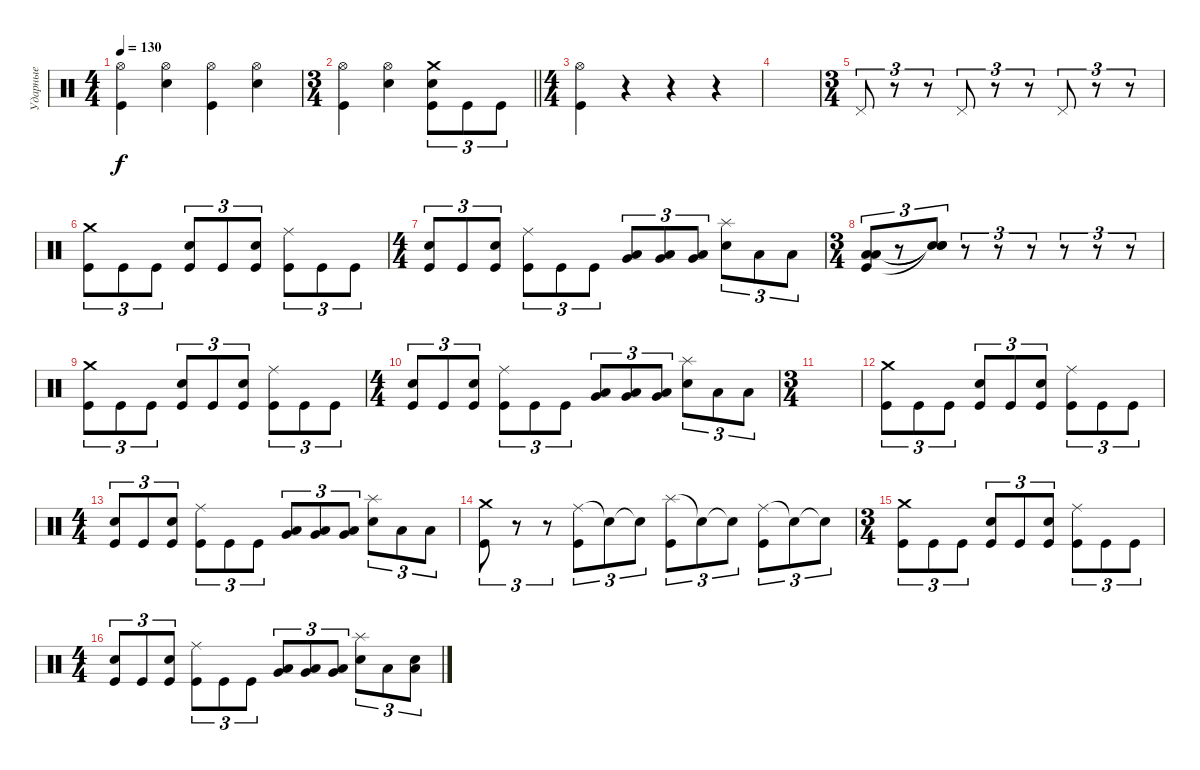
\track ("Ударные" "Ударные") {instrument percussion}
\staff {score}
\articulation defaults
\ts (4 4)
\tempo 130
\clef neutral
\ks c
("Hi-Hat (open)" "Kick (hit)").4{dy f} ("Hi-Hat (open)" "Electric Snare (hit)").4 ("Hi-Hat (open)" "Kick (hit)").4 ("Hi-Hat (open)" "Electric Snare (hit)").4 |
\ts (3 4)
\barLineRight lightlight
("Hi-Hat (open)" "Kick (hit)").4 ("Hi-Hat (open)" "Electric Snare (hit)").4 ("Crash medium (hit)" "Kick (hit)" "Electric Snare (hit)").8{tu (3 2)} "Kick (hit)".8{tu (3 2)} "Kick (hit)".8{tu (3 2)} |
\ts (4 4)
("Hi-Hat (open)" "Kick (hit)").4 r.4 r.4 r.4 |
|
\ts (3 4)
"Pedal Hi-Hat (hit)".8{tu (3 2)} r.8{tu (3 2)} r.8{tu (3 2)} "Pedal Hi-Hat (hit)".8{tu (3 2)} r.8{tu (3 2)} r.8{tu (3 2)} "Pedal Hi-Hat (hit)".8{tu (3 2)} r.8{tu (3 2)} r.8{tu (3 2)} |
("Kick (hit)" "Crash medium (hit)").8{tu (3 2)} "Kick (hit)".8{tu (3 2)} "Kick (hit)".8{tu (3 2)} ("Kick (hit)" "Electric Snare (hit)").8{tu (3 2)} "Kick (hit)".8{tu (3 2)} ("Kick (hit)" "Electric Snare (hit)").8{tu (3 2)} ("Ride (middle)" "Kick (hit)").8{tu (3 2)} "Kick (hit)".8{tu (3 2)} "Kick (hit)".8{tu (3 2)} |
\ts (4 4)
("Kick (hit)" "Electric Snare (hit)").8{tu (3 2)} "Kick (hit)".8{tu (3 2)} ("Kick (hit)" "Electric Snare (hit)").8{tu (3 2)} ("Ride (middle)" "Kick (hit)").8{tu (3 2)} "Kick (hit)".8{tu (3 2)} "Kick (hit)".8{tu (3 2)} ("Very Low Tom (hit)" "Low Tom (hit)").8{tu (3 2)} ("Very Low Tom (hit)" "Low Tom (hit)").8{tu (3 2)} ("Very Low Tom (hit)" "Low Tom (hit)").8{tu (3 2)} ("Electric Snare (hit)" "Splash (hit)").8{tu (3 2)} "Low Floor Tom (hit)".8{tu (3 2)} "Low Floor Tom (hit)".8{tu (3 2)} |
\ts (3 4)
("Kick (hit)" "Low Floor Tom (hit)" "Low Floor Tom (hit)").8{tu (3 2)} r.8{tu (3 2)} ("Snare (hit)"{t} "Snare (hit)"{t} "Snare (hit)"{t}).8{tu (3 2)} r.8{tu (3 2)} r.8{tu (3 2)} r.8{tu (3 2)} r.8{tu (3 2)} r.8{tu (3 2)} r.8{tu (3 2)} |
("Kick (hit)" "Crash medium (hit)").8{tu (3 2)} "Kick (hit)".8{tu (3 2)} "Kick (hit)".8{tu (3 2)} ("Kick (hit)" "Electric Snare (hit)").8{tu (3 2)} "Kick (hit)".8{tu (3 2)} ("Kick (hit)" "Electric Snare (hit)").8{tu (3 2)} ("Ride (middle)" "Kick (hit)").8{tu (3 2)} "Kick (hit)".8{tu (3 2)} "Kick (hit)".8{tu (3 2)} |
\ts (4 4)
("Kick (hit)" "Electric Snare (hit)").8{tu (3 2)} "Kick (hit)".8{tu (3 2)} ("Kick (hit)" "Electric Snare (hit)").8{tu (3 2)} ("Ride (middle)" "Kick (hit)").8{tu (3 2)} "Kick (hit)".8{tu (3 2)} "Kick (hit)".8{tu (3 2)} ("Very Low Tom (hit)" "Low Tom (hit)").8{tu (3 2)} ("Very Low Tom (hit)" "Low Tom (hit)").8{tu (3 2)} ("Very Low Tom (hit)" "Low Tom (hit)").8{tu (3 2)} ("Electric Snare (hit)" "Splash (hit)").8{tu (3 2)} "Low Floor Tom (hit)".8{tu (3 2)} "Low Floor Tom (hit)".8{tu (3 2)} |
\ts (3 4)
|
("Kick (hit)" "Crash medium (hit)").8{tu (3 2)} "Kick (hit)".8{tu (3 2)} "Kick (hit)".8{tu (3 2)} ("Kick (hit)" "Electric Snare (hit)").8{tu (3 2)} "Kick (hit)".8{tu (3 2)} ("Kick (hit)" "Electric Snare (hit)").8{tu (3 2)} ("Ride (middle)" "Kick (hit)").8{tu (3 2)} "Kick (hit)".8{tu (3 2)} "Kick (hit)".8{tu (3 2)} |
\ts (4 4)
("Kick (hit)" "Electric Snare (hit)").8{tu (3 2)} "Kick (hit)".8{tu (3 2)} ("Kick (hit)" "Electric Snare (hit)").8{tu (3 2)} ("Ride (middle)" "Kick (hit)").8{tu (3 2)} "Kick (hit)".8{tu (3 2)} "Kick (hit)".8{tu (3 2)} ("Very Low Tom (hit)" "Low Tom (hit)").8{tu (3 2)} ("Very Low Tom (hit)" "Low Tom (hit)").8{tu (3 2)} ("Very Low Tom (hit)" "Low Tom (hit)").8{tu (3 2)} ("Electric Snare (hit)" "Splash (hit)").8{tu (3 2)} "Low Floor Tom (hit)".8{tu (3 2)} "Low Floor Tom (hit)".8{tu (3 2)} |
("Crash medium (hit)" "Kick (hit)").8{tu (3 2)} r.8{tu (3 2)} r.8{tu (3 2)} ("Ride (middle)" "Kick (hit)").8{tu (3 2)} "Snare (hit)"{t}.8{tu (3 2)} "Snare (hit)"{t}.8{tu (3 2)} ("Splash (hit)" "Kick (hit)").8{tu (3 2)} "Snare (hit)"{t}.8{tu (3 2)} "Snare (hit)"{t}.8{tu (3 2)} ("Ride (middle)" "Kick (hit)").8{tu (3 2)} "Snare (hit)"{t}.8{tu (3 2)} "Snare (hit)"{t}.8{tu (3 2)} |
\ts (3 4)
("Kick (hit)" "Crash medium (hit)").8{tu (3 2)} "Kick (hit)".8{tu (3 2)} "Kick (hit)".8{tu (3 2)} ("Kick (hit)" "Electric Snare (hit)").8{tu (3 2)} "Kick (hit)".8{tu (3 2)} ("Kick (hit)" "Electric Snare (hit)").8{tu (3 2)} ("Ride (middle)" "Kick (hit)").8{tu (3 2)} "Kick (hit)".8{tu (3 2)} "Kick (hit)".8{tu (3 2)} |
\ts (4 4)
("Kick (hit)" "Electric Snare (hit)").8{tu (3 2)} "Kick (hit)".8{tu (3 2)} ("Kick (hit)" "Electric Snare (hit)").8{tu (3 2)} ("Ride (middle)" "Kick (hit)").8{tu (3 2)} "Kick (hit)".8{tu (3 2)} "Kick (hit)".8{tu (3 2)} ("Very Low Tom (hit)" "Low Tom (hit)").8{tu (3 2)} ("Very Low Tom (hit)" "Low Tom (hit)").8{tu (3 2)} ("Very Low Tom (hit)" "Low Tom (hit)").8{tu (3 2)} ("Electric Snare (hit)" "Splash (hit)").8{tu (3 2)} "Low Floor Tom (hit)".8{tu (3 2)} ("Electric Snare (hit)" "Low Floor Tom (hit)").8{tu (3 2)}
